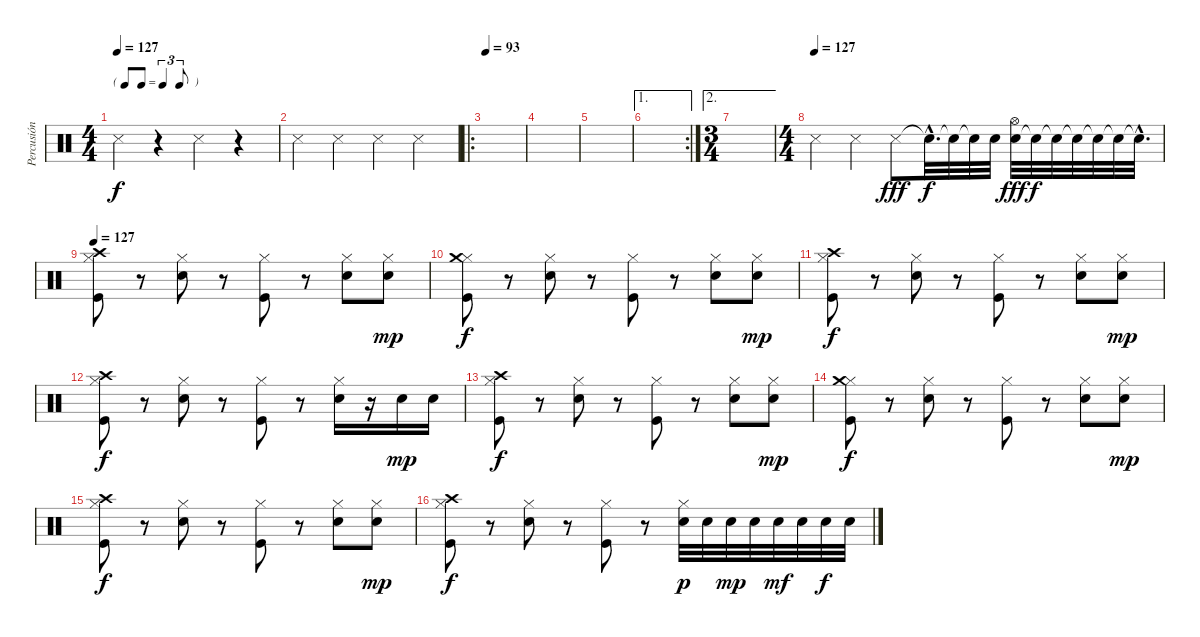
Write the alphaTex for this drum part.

\track ("Percusión" "Percusión") {instrument percussion}
\staff {score}
\articulation defaults
\ts (4 4)
\tf triplet8th
\tempo 127
\tempo 93
\tempo 127
\clef neutral
\ks c "Snare (side stick) 3".4{dy f}
r.4 "Snare (side stick) 3".4 r.4 |
"Snare (side stick) 3".4 "Snare (side stick) 3".4 "Snare (side stick) 3".4 "Snare (side stick) 3".4 |
\ro
\tempo 93
|
|
|
\ae 1
\rc 2
|
\ae 2
\ts (3 4)
|
\ts (4 4)
\tempo (127)
"Snare (side stick) 3".4 "Snare (side stick) 3".4 "Snare (side stick) 3".8{dy fff} "Snare (hit) 2"{hac t}.32{d dy f} "Snare (hit) 2"{t}.32 "Snare (hit)"{t}.32 "Snare (hit) 2".32 ("Snare (hit) 2" "Hi-Hat (open)").32{dy fff} "Snare (hit)"{t}.32{dy f} "Snare (hit)"{t}.32 "Snare (hit)"{t}.32 "Snare (hit)"{t}.32 "Snare (hit)"{t}.32 "Snare (hit)"{hac t}.32{d} |
\tempo 127
("Hi-Hat (closed)" "Crash high (hit)" "Kick (hit)").8 r.8 ("Hi-Hat (closed)" "Snare (hit) 2").8 r.8 ("Hi-Hat (closed)" "Kick (hit)").8 r.8 ("Hi-Hat (closed)" "Snare (hit) 2").8 ("Hi-Hat (closed)" "Snare (hit) 2").8{dy mp} |
("Hi-Hat (closed)" "Crash medium (hit)" "Kick (hit)").8{dy f} r.8 ("Hi-Hat (closed)" "Snare (hit) 2").8 r.8 ("Hi-Hat (closed)" "Kick (hit)").8 r.8 ("Hi-Hat (closed)" "Snare (hit) 2").8 ("Hi-Hat (closed)" "Snare (hit) 2").8{dy mp} |
("Hi-Hat (closed)" "Crash high (hit)" "Kick (hit)").8{dy f} r.8 ("Hi-Hat (closed)" "Snare (hit) 2").8 r.8 ("Hi-Hat (closed)" "Kick (hit)").8 r.8 ("Hi-Hat (closed)" "Snare (hit) 2").8 ("Hi-Hat (closed)" "Snare (hit) 2").8{dy mp} |
("Hi-Hat (closed)" "Crash high (hit)" "Kick (hit)").8{dy f} r.8 ("Hi-Hat (closed)" "Snare (hit) 2").8 r.8 ("Hi-Hat (closed)" "Kick (hit)").8 r.8 ("Hi-Hat (closed)" "Snare (hit) 2").16 r.16 "Snare (hit) 2".16{dy mp} "Snare (hit) 2".16 |
("Hi-Hat (closed)" "Crash high (hit)" "Kick (hit)").8{dy f} r.8 ("Hi-Hat (closed)" "Snare (hit) 2").8 r.8 ("Hi-Hat (closed)" "Kick (hit)").8 r.8 ("Hi-Hat (closed)" "Snare (hit) 2").8 ("Hi-Hat (closed)" "Snare (hit) 2").8{dy mp} |
("Hi-Hat (closed)" "Crash medium (hit)" "Kick (hit)").8{dy f} r.8 ("Hi-Hat (closed)" "Snare (hit) 2").8 r.8 ("Hi-Hat (closed)" "Kick (hit)").8 r.8 ("Hi-Hat (closed)" "Snare (hit) 2").8 ("Hi-Hat (closed)" "Snare (hit) 2").8{dy mp} |
("Hi-Hat (closed)" "Crash high (hit)" "Kick (hit)").8{dy f} r.8 ("Hi-Hat (closed)" "Snare (hit) 2").8 r.8 ("Hi-Hat (closed)" "Kick (hit)").8 r.8 ("Hi-Hat (closed)" "Snare (hit) 2").8 ("Hi-Hat (closed)" "Snare (hit) 2").8{dy mp} |
("Hi-Hat (closed)" "Crash high (hit)" "Kick (hit)").8{dy f} r.8 ("Hi-Hat (closed)" "Snare (hit) 2").8 r.8 ("Hi-Hat (closed)" "Kick (hit)").8 r.8 ("Hi-Hat (closed)" "Snare (hit) 2").32{dy p} "Snare (hit) 2".32 "Snare (hit) 2".32{dy mp} "Snare (hit) 2".32 "Snare (hit) 2".32{dy mf} "Snare (hit) 2".32 "Snare (hit) 2".32{dy f} "Snare (hit) 2".32
